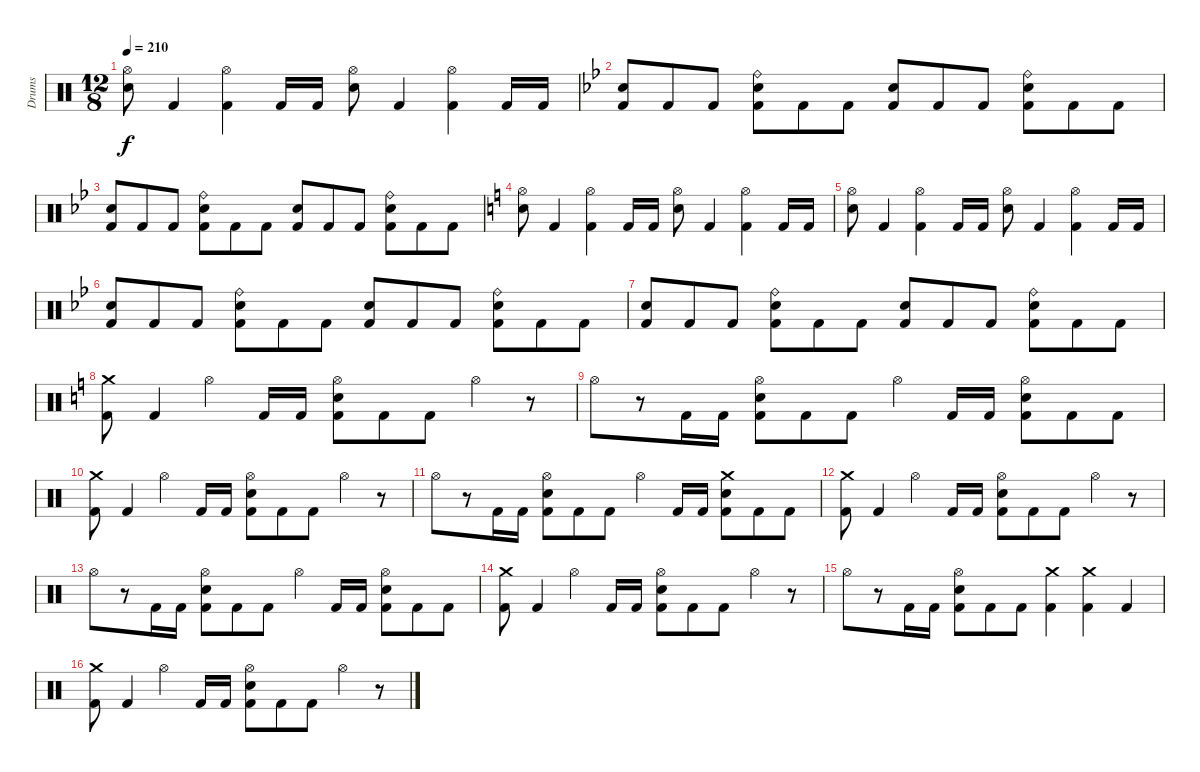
\track ("Drums" "Drums") {instrument percussion}
\staff {score}
\articulation defaults
\ts (12 8)
\tempo 210
\clef neutral
\ks c
("Hi-Hat (open)" "Snare (hit) 2").8{dy f} "Kick (hit) 2".4 ("Hi-Hat (open)" "Kick (hit) 2").4 "Kick (hit) 2".16 "Kick (hit) 2".16 ("Hi-Hat (open)" "Snare (hit) 2").8 "Kick (hit) 2".4 ("Hi-Hat (open)" "Kick (hit) 2").4 "Kick (hit) 2".16 "Kick (hit) 2".16 |
\ks bb
("Snare (hit) 2" "Kick (hit) 2").8 "Kick (hit) 2".8 "Kick (hit) 2".8 ("Ride (bell)" "Snare (hit) 2" "Kick (hit) 2").8 "Kick (hit) 2".8 "Kick (hit) 2".8 ("Snare (hit) 2" "Kick (hit) 2").8 "Kick (hit) 2".8 "Kick (hit) 2".8 ("Ride (bell)" "Snare (hit) 2" "Kick (hit) 2").8 "Kick (hit) 2".8 "Kick (hit) 2".8 |
("Snare (hit) 2" "Kick (hit) 2").8 "Kick (hit) 2".8 "Kick (hit) 2".8 ("Ride (bell)" "Snare (hit) 2" "Kick (hit) 2").8 "Kick (hit) 2".8 "Kick (hit) 2".8 ("Snare (hit) 2" "Kick (hit) 2").8 "Kick (hit) 2".8 "Kick (hit) 2".8 ("Ride (bell)" "Snare (hit) 2" "Kick (hit) 2").8 "Kick (hit) 2".8 "Kick (hit) 2".8 |
\ks c
("Hi-Hat (open)" "Snare (hit) 2").8 "Kick (hit) 2".4 ("Hi-Hat (open)" "Kick (hit) 2").4 "Kick (hit) 2".16 "Kick (hit) 2".16 ("Hi-Hat (open)" "Snare (hit) 2").8 "Kick (hit) 2".4 ("Hi-Hat (open)" "Kick (hit) 2").4 "Kick (hit) 2".16 "Kick (hit) 2".16 |
("Hi-Hat (open)" "Snare (hit) 2").8 "Kick (hit) 2".4 ("Hi-Hat (open)" "Kick (hit) 2").4 "Kick (hit) 2".16 "Kick (hit) 2".16 ("Hi-Hat (open)" "Snare (hit) 2").8 "Kick (hit) 2".4 ("Hi-Hat (open)" "Kick (hit) 2").4 "Kick (hit) 2".16 "Kick (hit) 2".16 |
\ks bb
("Snare (hit) 2" "Kick (hit) 2").8 "Kick (hit) 2".8 "Kick (hit) 2".8 ("Ride (bell)" "Snare (hit) 2" "Kick (hit) 2").8 "Kick (hit) 2".8 "Kick (hit) 2".8 ("Snare (hit) 2" "Kick (hit) 2").8 "Kick (hit) 2".8 "Kick (hit) 2".8 ("Ride (bell)" "Snare (hit) 2" "Kick (hit) 2").8 "Kick (hit) 2".8 "Kick (hit) 2".8 |
("Snare (hit) 2" "Kick (hit) 2").8 "Kick (hit) 2".8 "Kick (hit) 2".8 ("Ride (bell)" "Snare (hit) 2" "Kick (hit) 2").8 "Kick (hit) 2".8 "Kick (hit) 2".8 ("Snare (hit) 2" "Kick (hit) 2").8 "Kick (hit) 2".8 "Kick (hit) 2".8 ("Ride (bell)" "Snare (hit) 2" "Kick (hit) 2").8 "Kick (hit) 2".8 "Kick (hit) 2".8 |
\ks c
("Crash medium (hit)" "Kick (hit) 2").8 "Kick (hit) 2".4 "Hi-Hat (open)".4 "Kick (hit) 2".16 "Kick (hit) 2".16 ("Hi-Hat (open)" "Snare (hit) 2" "Kick (hit) 2").8 "Kick (hit) 2".8 "Kick (hit) 2".8 "Hi-Hat (open)".4 r.8 |
"Hi-Hat (open)".8 r.8 "Kick (hit) 2".16 "Kick (hit) 2".16 ("Hi-Hat (open)" "Snare (hit) 2" "Kick (hit) 2").8 "Kick (hit) 2".8 "Kick (hit) 2".8 "Hi-Hat (open)".4 "Kick (hit) 2".16 "Kick (hit) 2".16 ("Hi-Hat (open)" "Snare (hit) 2" "Kick (hit) 2").8 "Kick (hit) 2".8 "Kick (hit) 2".8 |
("Crash medium (hit)" "Kick (hit) 2").8 "Kick (hit) 2".4 "Hi-Hat (open)".4 "Kick (hit) 2".16 "Kick (hit) 2".16 ("Hi-Hat (open)" "Snare (hit) 2" "Kick (hit) 2").8 "Kick (hit) 2".8 "Kick (hit) 2".8 "Hi-Hat (open)".4 r.8 |
"Hi-Hat (open)".8 r.8 "Kick (hit) 2".16 "Kick (hit) 2".16 ("Hi-Hat (open)" "Snare (hit) 2" "Kick (hit) 2").8 "Kick (hit) 2".8 "Kick (hit) 2".8 "Hi-Hat (open)".4 "Kick (hit) 2".16 "Kick (hit) 2".16 ("Crash medium (hit)" "Snare (hit) 2" "Kick (hit) 2").8 "Kick (hit) 2".8 "Kick (hit) 2".8 |
("Crash medium (hit)" "Kick (hit) 2").8 "Kick (hit) 2".4 "Hi-Hat (open)".4 "Kick (hit) 2".16 "Kick (hit) 2".16 ("Hi-Hat (open)" "Snare (hit) 2" "Kick (hit) 2").8 "Kick (hit) 2".8 "Kick (hit) 2".8 "Hi-Hat (open)".4 r.8 |
"Hi-Hat (open)".8 r.8 "Kick (hit) 2".16 "Kick (hit) 2".16 ("Hi-Hat (open)" "Snare (hit) 2" "Kick (hit) 2").8 "Kick (hit) 2".8 "Kick (hit) 2".8 "Hi-Hat (open)".4 "Kick (hit) 2".16 "Kick (hit) 2".16 ("Hi-Hat (open)" "Snare (hit) 2" "Kick (hit) 2").8 "Kick (hit) 2".8 "Kick (hit) 2".8 |
("Crash medium (hit)" "Kick (hit) 2").8 "Kick (hit) 2".4 "Hi-Hat (open)".4 "Kick (hit) 2".16 "Kick (hit) 2".16 ("Hi-Hat (open)" "Snare (hit) 2" "Kick (hit) 2").8 "Kick (hit) 2".8 "Kick (hit) 2".8 "Hi-Hat (open)".4 r.8 |
"Hi-Hat (open)".8 r.8 "Kick (hit) 2".16 "Kick (hit) 2".16 ("Hi-Hat (open)" "Snare (hit) 2" "Kick (hit) 2").8 "Kick (hit) 2".8 "Kick (hit) 2".8 ("Crash medium (hit)" "Kick (hit) 2").4 ("Crash medium (hit)" "Kick (hit) 2").4 "Kick (hit) 2".4 |
("Crash medium (hit)" "Kick (hit) 2").8 "Kick (hit) 2".4 "Hi-Hat (open)".4 "Kick (hit) 2".16 "Kick (hit) 2".16 ("Hi-Hat (open)" "Snare (hit) 2" "Kick (hit) 2").8 "Kick (hit) 2".8 "Kick (hit) 2".8 "Hi-Hat (open)".4 r.8
